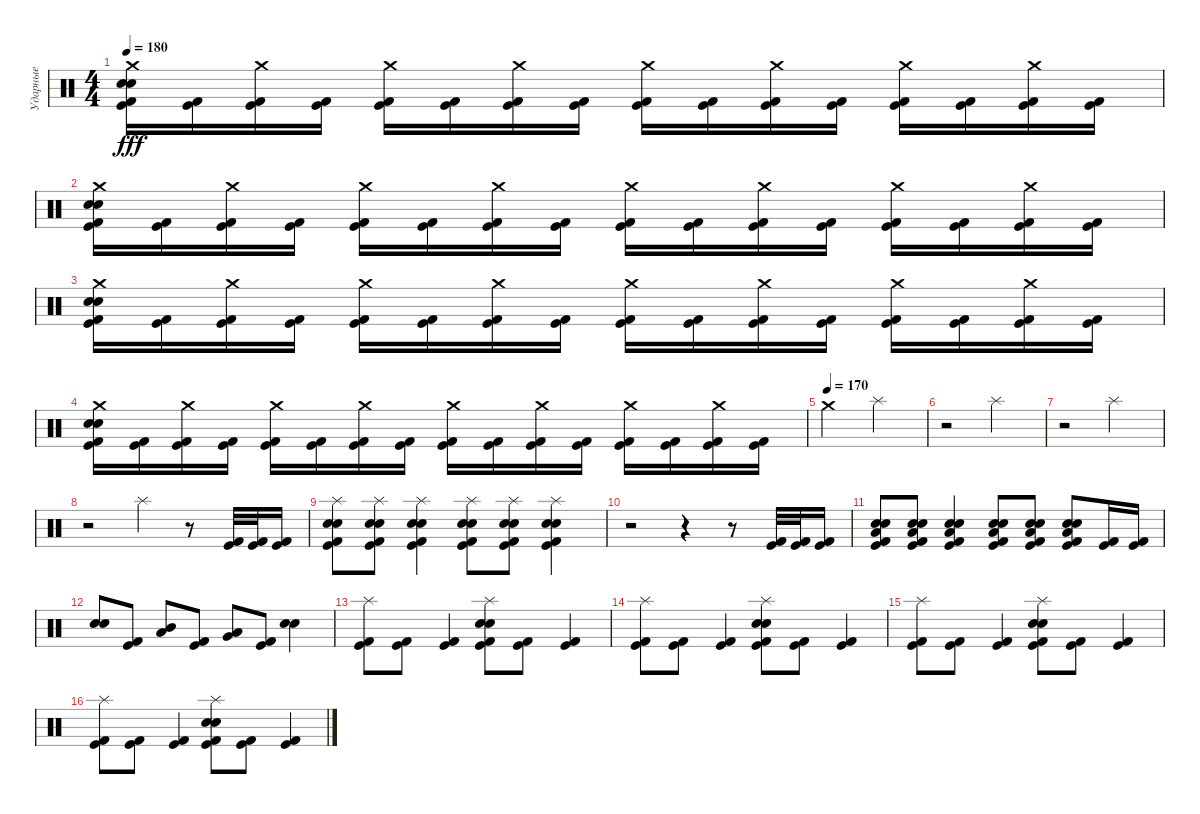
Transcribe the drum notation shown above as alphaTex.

\track ("Ударные" "Ударные") {instrument percussion}
\staff {score}
\articulation defaults
\ts (4 4)
\tempo 180
\clef neutral
\ks c
("Kick (hit) 2" "Kick (hit)" "Snare (hit) 2" "Electric Snare (hit)" "Crash medium (hit)").16{dy fff} ("Kick (hit) 2" "Kick (hit)").16 ("Kick (hit) 2" "Kick (hit)" "Crash medium (hit)").16 ("Kick (hit) 2" "Kick (hit)").16 ("Kick (hit) 2" "Kick (hit)" "Crash medium (hit)").16 ("Kick (hit) 2" "Kick (hit)").16 ("Kick (hit) 2" "Kick (hit)" "Crash medium (hit)").16 ("Kick (hit) 2" "Kick (hit)").16 ("Kick (hit) 2" "Kick (hit)" "Crash medium (hit)").16 ("Kick (hit) 2" "Kick (hit)").16 ("Kick (hit) 2" "Kick (hit)" "Crash medium (hit)").16 ("Kick (hit) 2" "Kick (hit)").16 ("Kick (hit) 2" "Kick (hit)" "Crash medium (hit)").16 ("Kick (hit) 2" "Kick (hit)").16 ("Kick (hit) 2" "Kick (hit)" "Crash medium (hit)").16 ("Kick (hit) 2" "Kick (hit)").16 |
("Kick (hit) 2" "Kick (hit)" "Snare (hit) 2" "Electric Snare (hit)" "Crash medium (hit)").16 ("Kick (hit) 2" "Kick (hit)").16 ("Kick (hit) 2" "Kick (hit)" "Crash medium (hit)").16 ("Kick (hit) 2" "Kick (hit)").16 ("Kick (hit) 2" "Kick (hit)" "Crash medium (hit)").16 ("Kick (hit) 2" "Kick (hit)").16 ("Kick (hit) 2" "Kick (hit)" "Crash medium (hit)").16 ("Kick (hit) 2" "Kick (hit)").16 ("Kick (hit) 2" "Kick (hit)" "Crash medium (hit)").16 ("Kick (hit) 2" "Kick (hit)").16 ("Kick (hit) 2" "Kick (hit)" "Crash medium (hit)").16 ("Kick (hit) 2" "Kick (hit)").16 ("Kick (hit) 2" "Kick (hit)" "Crash medium (hit)").16 ("Kick (hit) 2" "Kick (hit)").16 ("Kick (hit) 2" "Kick (hit)" "Crash medium (hit)").16 ("Kick (hit) 2" "Kick (hit)").16 |
("Kick (hit) 2" "Kick (hit)" "Snare (hit) 2" "Electric Snare (hit)" "Crash medium (hit)").16 ("Kick (hit) 2" "Kick (hit)").16 ("Kick (hit) 2" "Kick (hit)" "Crash medium (hit)").16 ("Kick (hit) 2" "Kick (hit)").16 ("Kick (hit) 2" "Kick (hit)" "Crash medium (hit)").16 ("Kick (hit) 2" "Kick (hit)").16 ("Kick (hit) 2" "Kick (hit)" "Crash medium (hit)").16 ("Kick (hit) 2" "Kick (hit)").16 ("Kick (hit) 2" "Kick (hit)" "Crash medium (hit)").16 ("Kick (hit) 2" "Kick (hit)").16 ("Kick (hit) 2" "Kick (hit)" "Crash medium (hit)").16 ("Kick (hit) 2" "Kick (hit)").16 ("Kick (hit) 2" "Kick (hit)" "Crash medium (hit)").16 ("Kick (hit) 2" "Kick (hit)").16 ("Kick (hit) 2" "Kick (hit)" "Crash medium (hit)").16 ("Kick (hit) 2" "Kick (hit)").16 |
("Kick (hit) 2" "Kick (hit)" "Snare (hit) 2" "Electric Snare (hit)" "Crash medium (hit)").16 ("Kick (hit) 2" "Kick (hit)").16 ("Kick (hit) 2" "Kick (hit)" "Crash medium (hit)").16 ("Kick (hit) 2" "Kick (hit)").16 ("Kick (hit) 2" "Kick (hit)" "Crash medium (hit)").16 ("Kick (hit) 2" "Kick (hit)").16 ("Kick (hit) 2" "Kick (hit)" "Crash medium (hit)").16 ("Kick (hit) 2" "Kick (hit)").16 ("Kick (hit) 2" "Kick (hit)" "Crash medium (hit)").16 ("Kick (hit) 2" "Kick (hit)").16 ("Kick (hit) 2" "Kick (hit)" "Crash medium (hit)").16 ("Kick (hit) 2" "Kick (hit)").16 ("Kick (hit) 2" "Kick (hit)" "Crash medium (hit)").16 ("Kick (hit) 2" "Kick (hit)").16 ("Kick (hit) 2" "Kick (hit)" "Crash medium (hit)").16 ("Kick (hit) 2" "Kick (hit)").16 |
\tempo (170)
"Crash medium (hit)".2 "Splash (hit)".2 |
r.2 "Splash (hit)".2 |
r.2 "Splash (hit)".2 |
r.2 "Splash (hit)".4 r.8 ("Kick (hit)" "Kick (hit) 2").32 ("Kick (hit)" "Kick (hit) 2").32 ("Kick (hit)" "Kick (hit) 2").16 |
("Kick (hit) 2" "Kick (hit)" "Electric Snare (hit)" "Snare (hit) 2" "Splash (hit)").8 ("Kick (hit) 2" "Kick (hit)" "Electric Snare (hit)" "Snare (hit) 2" "Splash (hit)").8 ("Kick (hit) 2" "Kick (hit)" "Electric Snare (hit)" "Snare (hit) 2" "Splash (hit)").4 ("Kick (hit) 2" "Kick (hit)" "Electric Snare (hit)" "Snare (hit) 2" "Splash (hit)").8 ("Kick (hit) 2" "Kick (hit)" "Electric Snare (hit)" "Snare (hit) 2" "Splash (hit)").8 ("Kick (hit) 2" "Kick (hit)" "Electric Snare (hit)" "Snare (hit) 2" "Splash (hit)").4 |
r.2 r.4 r.8 ("Kick (hit)" "Kick (hit) 2").32 ("Kick (hit)" "Kick (hit) 2").32 ("Kick (hit)" "Kick (hit) 2").16 |
("Kick (hit) 2" "Kick (hit)" "Electric Snare (hit)" "Snare (hit) 2" "Low Tom (hit)").8 ("Kick (hit) 2" "Kick (hit)" "Electric Snare (hit)" "Snare (hit) 2" "Low Tom (hit)").8 ("Kick (hit) 2" "Kick (hit)" "Electric Snare (hit)" "Snare (hit) 2" "Low Tom (hit)").4 ("Kick (hit) 2" "Kick (hit)" "Electric Snare (hit)" "Snare (hit) 2" "Low Tom (hit)").8 ("Kick (hit) 2" "Kick (hit)" "Electric Snare (hit)" "Snare (hit) 2" "Low Tom (hit)").8 ("Kick (hit) 2" "Kick (hit)" "Electric Snare (hit)" "Snare (hit) 2" "Low Tom (hit)").8 ("Kick (hit) 2" "Kick (hit)").16 ("Kick (hit) 2" "Kick (hit)").16 |
("Snare (hit) 2" "Electric Snare (hit)").8 ("Kick (hit) 2" "Kick (hit)").8 ("Low Tom (hit)" "Mid Tom (hit)").8 ("Kick (hit) 2" "Kick (hit)").8 ("Very Low Tom (hit)" "Low Tom (hit)").8 ("Kick (hit) 2" "Kick (hit)").8 ("Snare (hit) 2" "Electric Snare (hit)").4 |
("Kick (hit) 2" "Kick (hit)" "Splash (hit)").8 ("Kick (hit) 2" "Kick (hit)").8 ("Kick (hit) 2" "Kick (hit)").4 ("Kick (hit) 2" "Kick (hit)" "Snare (hit) 2" "Electric Snare (hit)" "Splash (hit)").8 ("Kick (hit) 2" "Kick (hit)").8 ("Kick (hit) 2" "Kick (hit)").4 |
("Kick (hit) 2" "Kick (hit)" "Splash (hit)").8 ("Kick (hit) 2" "Kick (hit)").8 ("Kick (hit) 2" "Kick (hit)").4 ("Kick (hit) 2" "Kick (hit)" "Snare (hit) 2" "Electric Snare (hit)" "Splash (hit)").8 ("Kick (hit) 2" "Kick (hit)").8 ("Kick (hit) 2" "Kick (hit)").4 |
("Kick (hit) 2" "Kick (hit)" "Splash (hit)").8 ("Kick (hit) 2" "Kick (hit)").8 ("Kick (hit) 2" "Kick (hit)").4 ("Kick (hit) 2" "Kick (hit)" "Snare (hit) 2" "Electric Snare (hit)" "Splash (hit)").8 ("Kick (hit) 2" "Kick (hit)").8 ("Kick (hit) 2" "Kick (hit)").4 |
("Kick (hit) 2" "Kick (hit)" "Splash (hit)").8 ("Kick (hit) 2" "Kick (hit)").8 ("Kick (hit) 2" "Kick (hit)").4 ("Kick (hit) 2" "Kick (hit)" "Snare (hit) 2" "Electric Snare (hit)" "Splash (hit)").8 ("Kick (hit) 2" "Kick (hit)").8 ("Kick (hit) 2" "Kick (hit)").4
